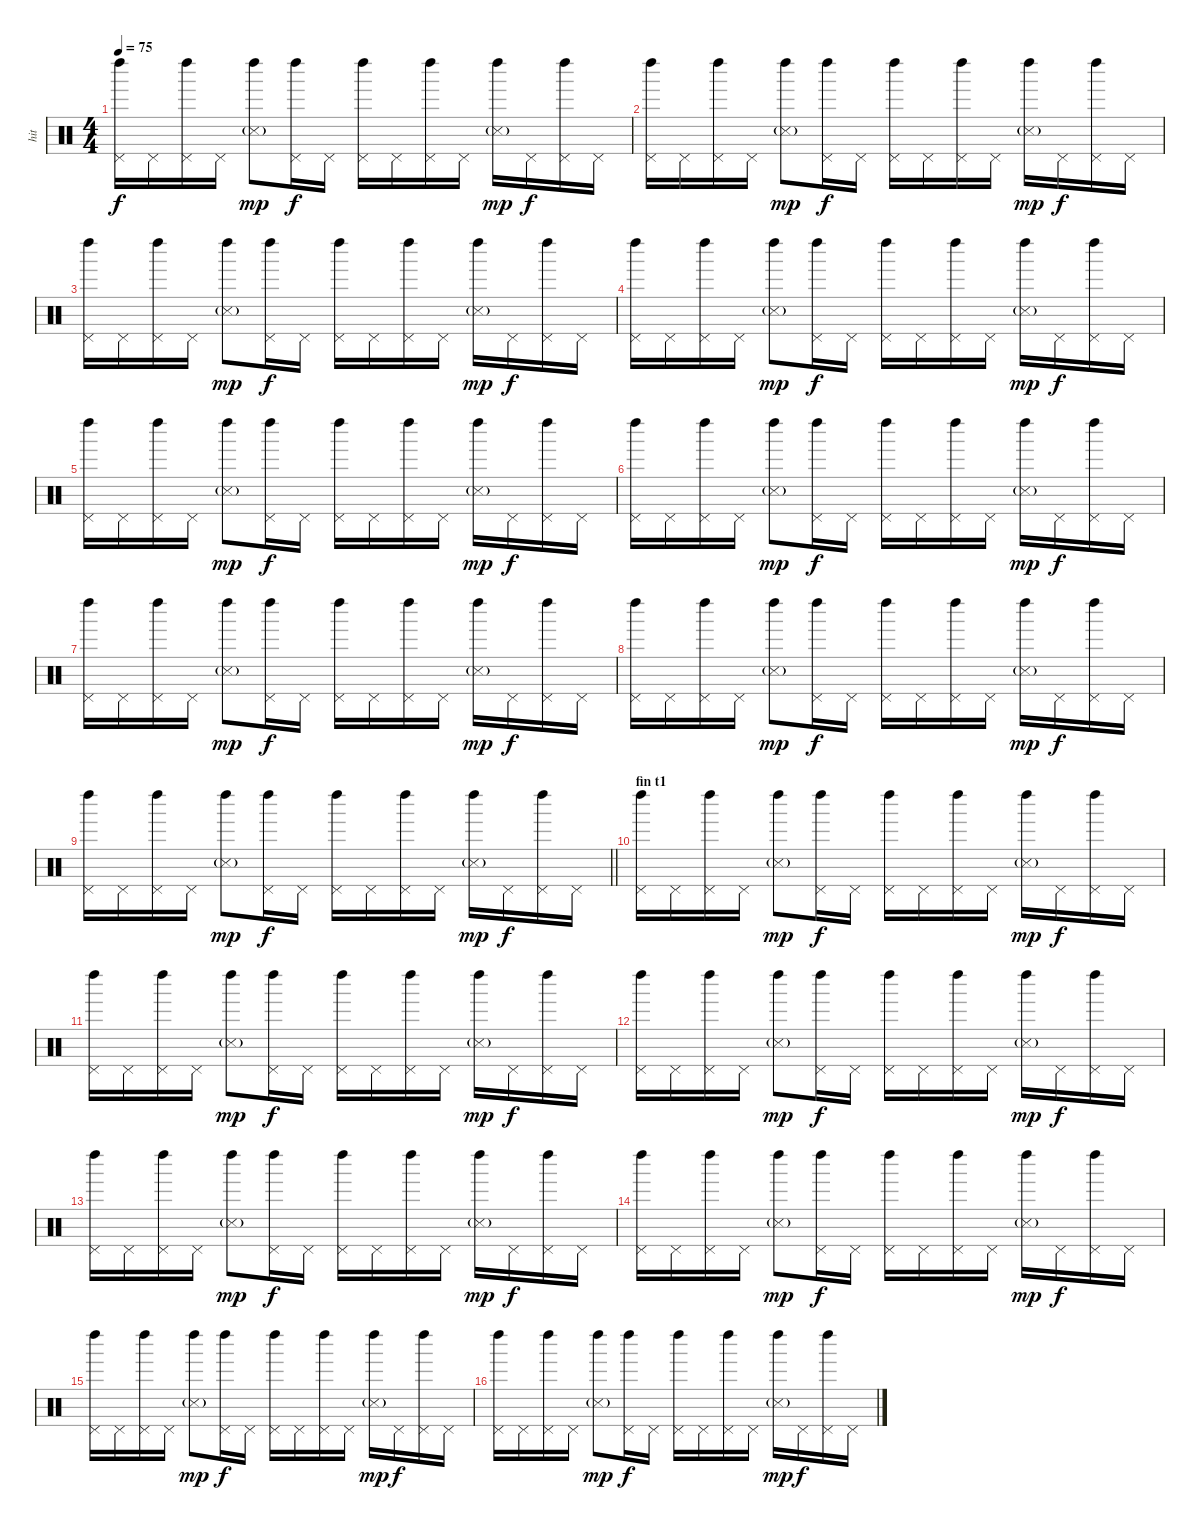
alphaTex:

\track ("hit" "hit") {instrument percussion}
\staff {score}
\articulation defaults
\ts (4 4)
\tempo 75
\clef neutral
\ks c
("Pedal Hi-Hat (hit)" "Left Maraca (hit)").16{dy f} "Pedal Hi-Hat (hit)".16 ("Pedal Hi-Hat (hit)" "Left Maraca (hit)").16 "Pedal Hi-Hat (hit)".16 ("Metronome (hit)"{g} "Left Maraca (hit)").8{dy mp} ("Pedal Hi-Hat (hit)" "Left Maraca (hit)").16{dy f} "Pedal Hi-Hat (hit)".16 ("Pedal Hi-Hat (hit)" "Left Maraca (hit)").16 "Pedal Hi-Hat (hit)".16 ("Pedal Hi-Hat (hit)" "Left Maraca (hit)").16 "Pedal Hi-Hat (hit)".16 ("Metronome (hit)"{g} "Left Maraca (hit)").16{dy mp} "Pedal Hi-Hat (hit)".16{dy f} ("Pedal Hi-Hat (hit)" "Left Maraca (hit)").16 "Pedal Hi-Hat (hit)".16 |
("Pedal Hi-Hat (hit)" "Left Maraca (hit)").16 "Pedal Hi-Hat (hit)".16 ("Pedal Hi-Hat (hit)" "Left Maraca (hit)").16 "Pedal Hi-Hat (hit)".16 ("Metronome (hit)"{g} "Left Maraca (hit)").8{dy mp} ("Pedal Hi-Hat (hit)" "Left Maraca (hit)").16{dy f} "Pedal Hi-Hat (hit)".16 ("Pedal Hi-Hat (hit)" "Left Maraca (hit)").16 "Pedal Hi-Hat (hit)".16 ("Pedal Hi-Hat (hit)" "Left Maraca (hit)").16 "Pedal Hi-Hat (hit)".16 ("Metronome (hit)"{g} "Left Maraca (hit)").16{dy mp} "Pedal Hi-Hat (hit)".16{dy f} ("Pedal Hi-Hat (hit)" "Left Maraca (hit)").16 "Pedal Hi-Hat (hit)".16 |
("Pedal Hi-Hat (hit)" "Left Maraca (hit)").16 "Pedal Hi-Hat (hit)".16 ("Pedal Hi-Hat (hit)" "Left Maraca (hit)").16 "Pedal Hi-Hat (hit)".16 ("Metronome (hit)"{g} "Left Maraca (hit)").8{dy mp} ("Pedal Hi-Hat (hit)" "Left Maraca (hit)").16{dy f} "Pedal Hi-Hat (hit)".16 ("Pedal Hi-Hat (hit)" "Left Maraca (hit)").16 "Pedal Hi-Hat (hit)".16 ("Pedal Hi-Hat (hit)" "Left Maraca (hit)").16 "Pedal Hi-Hat (hit)".16 ("Metronome (hit)"{g} "Left Maraca (hit)").16{dy mp} "Pedal Hi-Hat (hit)".16{dy f} ("Pedal Hi-Hat (hit)" "Left Maraca (hit)").16 "Pedal Hi-Hat (hit)".16 |
("Pedal Hi-Hat (hit)" "Left Maraca (hit)").16 "Pedal Hi-Hat (hit)".16 ("Pedal Hi-Hat (hit)" "Left Maraca (hit)").16 "Pedal Hi-Hat (hit)".16 ("Metronome (hit)"{g} "Left Maraca (hit)").8{dy mp} ("Pedal Hi-Hat (hit)" "Left Maraca (hit)").16{dy f} "Pedal Hi-Hat (hit)".16 ("Pedal Hi-Hat (hit)" "Left Maraca (hit)").16 "Pedal Hi-Hat (hit)".16 ("Pedal Hi-Hat (hit)" "Left Maraca (hit)").16 "Pedal Hi-Hat (hit)".16 ("Metronome (hit)"{g} "Left Maraca (hit)").16{dy mp} "Pedal Hi-Hat (hit)".16{dy f} ("Pedal Hi-Hat (hit)" "Left Maraca (hit)").16 "Pedal Hi-Hat (hit)".16 |
("Pedal Hi-Hat (hit)" "Left Maraca (hit)").16 "Pedal Hi-Hat (hit)".16 ("Pedal Hi-Hat (hit)" "Left Maraca (hit)").16 "Pedal Hi-Hat (hit)".16 ("Metronome (hit)"{g} "Left Maraca (hit)").8{dy mp} ("Pedal Hi-Hat (hit)" "Left Maraca (hit)").16{dy f} "Pedal Hi-Hat (hit)".16 ("Pedal Hi-Hat (hit)" "Left Maraca (hit)").16 "Pedal Hi-Hat (hit)".16 ("Pedal Hi-Hat (hit)" "Left Maraca (hit)").16 "Pedal Hi-Hat (hit)".16 ("Metronome (hit)"{g} "Left Maraca (hit)").16{dy mp} "Pedal Hi-Hat (hit)".16{dy f} ("Pedal Hi-Hat (hit)" "Left Maraca (hit)").16 "Pedal Hi-Hat (hit)".16 |
("Pedal Hi-Hat (hit)" "Left Maraca (hit)").16 "Pedal Hi-Hat (hit)".16 ("Pedal Hi-Hat (hit)" "Left Maraca (hit)").16 "Pedal Hi-Hat (hit)".16 ("Metronome (hit)"{g} "Left Maraca (hit)").8{dy mp} ("Pedal Hi-Hat (hit)" "Left Maraca (hit)").16{dy f} "Pedal Hi-Hat (hit)".16 ("Pedal Hi-Hat (hit)" "Left Maraca (hit)").16 "Pedal Hi-Hat (hit)".16 ("Pedal Hi-Hat (hit)" "Left Maraca (hit)").16 "Pedal Hi-Hat (hit)".16 ("Metronome (hit)"{g} "Left Maraca (hit)").16{dy mp} "Pedal Hi-Hat (hit)".16{dy f} ("Pedal Hi-Hat (hit)" "Left Maraca (hit)").16 "Pedal Hi-Hat (hit)".16 |
("Pedal Hi-Hat (hit)" "Left Maraca (hit)").16 "Pedal Hi-Hat (hit)".16 ("Pedal Hi-Hat (hit)" "Left Maraca (hit)").16 "Pedal Hi-Hat (hit)".16 ("Metronome (hit)"{g} "Left Maraca (hit)").8{dy mp} ("Pedal Hi-Hat (hit)" "Left Maraca (hit)").16{dy f} "Pedal Hi-Hat (hit)".16 ("Pedal Hi-Hat (hit)" "Left Maraca (hit)").16 "Pedal Hi-Hat (hit)".16 ("Pedal Hi-Hat (hit)" "Left Maraca (hit)").16 "Pedal Hi-Hat (hit)".16 ("Metronome (hit)"{g} "Left Maraca (hit)").16{dy mp} "Pedal Hi-Hat (hit)".16{dy f} ("Pedal Hi-Hat (hit)" "Left Maraca (hit)").16 "Pedal Hi-Hat (hit)".16 |
("Pedal Hi-Hat (hit)" "Left Maraca (hit)").16 "Pedal Hi-Hat (hit)".16 ("Pedal Hi-Hat (hit)" "Left Maraca (hit)").16 "Pedal Hi-Hat (hit)".16 ("Metronome (hit)"{g} "Left Maraca (hit)").8{dy mp} ("Pedal Hi-Hat (hit)" "Left Maraca (hit)").16{dy f} "Pedal Hi-Hat (hit)".16 ("Pedal Hi-Hat (hit)" "Left Maraca (hit)").16 "Pedal Hi-Hat (hit)".16 ("Pedal Hi-Hat (hit)" "Left Maraca (hit)").16 "Pedal Hi-Hat (hit)".16 ("Metronome (hit)"{g} "Left Maraca (hit)").16{dy mp} "Pedal Hi-Hat (hit)".16{dy f} ("Pedal Hi-Hat (hit)" "Left Maraca (hit)").16 "Pedal Hi-Hat (hit)".16 |
\barLineRight lightlight
("Pedal Hi-Hat (hit)" "Left Maraca (hit)").16 "Pedal Hi-Hat (hit)".16 ("Pedal Hi-Hat (hit)" "Left Maraca (hit)").16 "Pedal Hi-Hat (hit)".16 ("Metronome (hit)"{g} "Left Maraca (hit)").8{dy mp} ("Pedal Hi-Hat (hit)" "Left Maraca (hit)").16{dy f} "Pedal Hi-Hat (hit)".16 ("Pedal Hi-Hat (hit)" "Left Maraca (hit)").16 "Pedal Hi-Hat (hit)".16 ("Pedal Hi-Hat (hit)" "Left Maraca (hit)").16 "Pedal Hi-Hat (hit)".16 ("Metronome (hit)"{g} "Left Maraca (hit)").16{dy mp} "Pedal Hi-Hat (hit)".16{dy f} ("Pedal Hi-Hat (hit)" "Left Maraca (hit)").16 "Pedal Hi-Hat (hit)".16 |
\section ("" "fin t1")
("Pedal Hi-Hat (hit)" "Left Maraca (hit)").16 "Pedal Hi-Hat (hit)".16 ("Pedal Hi-Hat (hit)" "Left Maraca (hit)").16 "Pedal Hi-Hat (hit)".16 ("Metronome (hit)"{g} "Left Maraca (hit)").8{dy mp} ("Pedal Hi-Hat (hit)" "Left Maraca (hit)").16{dy f} "Pedal Hi-Hat (hit)".16 ("Pedal Hi-Hat (hit)" "Left Maraca (hit)").16 "Pedal Hi-Hat (hit)".16 ("Pedal Hi-Hat (hit)" "Left Maraca (hit)").16 "Pedal Hi-Hat (hit)".16 ("Metronome (hit)"{g} "Left Maraca (hit)").16{dy mp} "Pedal Hi-Hat (hit)".16{dy f} ("Pedal Hi-Hat (hit)" "Left Maraca (hit)").16 "Pedal Hi-Hat (hit)".16 |
("Pedal Hi-Hat (hit)" "Left Maraca (hit)").16 "Pedal Hi-Hat (hit)".16 ("Pedal Hi-Hat (hit)" "Left Maraca (hit)").16 "Pedal Hi-Hat (hit)".16 ("Metronome (hit)"{g} "Left Maraca (hit)").8{dy mp} ("Pedal Hi-Hat (hit)" "Left Maraca (hit)").16{dy f} "Pedal Hi-Hat (hit)".16 ("Pedal Hi-Hat (hit)" "Left Maraca (hit)").16 "Pedal Hi-Hat (hit)".16 ("Pedal Hi-Hat (hit)" "Left Maraca (hit)").16 "Pedal Hi-Hat (hit)".16 ("Metronome (hit)"{g} "Left Maraca (hit)").16{dy mp} "Pedal Hi-Hat (hit)".16{dy f} ("Pedal Hi-Hat (hit)" "Left Maraca (hit)").16 "Pedal Hi-Hat (hit)".16 |
("Pedal Hi-Hat (hit)" "Left Maraca (hit)").16 "Pedal Hi-Hat (hit)".16 ("Pedal Hi-Hat (hit)" "Left Maraca (hit)").16 "Pedal Hi-Hat (hit)".16 ("Metronome (hit)"{g} "Left Maraca (hit)").8{dy mp} ("Pedal Hi-Hat (hit)" "Left Maraca (hit)").16{dy f} "Pedal Hi-Hat (hit)".16 ("Pedal Hi-Hat (hit)" "Left Maraca (hit)").16 "Pedal Hi-Hat (hit)".16 ("Pedal Hi-Hat (hit)" "Left Maraca (hit)").16 "Pedal Hi-Hat (hit)".16 ("Metronome (hit)"{g} "Left Maraca (hit)").16{dy mp} "Pedal Hi-Hat (hit)".16{dy f} ("Pedal Hi-Hat (hit)" "Left Maraca (hit)").16 "Pedal Hi-Hat (hit)".16 |
("Pedal Hi-Hat (hit)" "Left Maraca (hit)").16 "Pedal Hi-Hat (hit)".16 ("Pedal Hi-Hat (hit)" "Left Maraca (hit)").16 "Pedal Hi-Hat (hit)".16 ("Metronome (hit)"{g} "Left Maraca (hit)").8{dy mp} ("Pedal Hi-Hat (hit)" "Left Maraca (hit)").16{dy f} "Pedal Hi-Hat (hit)".16 ("Pedal Hi-Hat (hit)" "Left Maraca (hit)").16 "Pedal Hi-Hat (hit)".16 ("Pedal Hi-Hat (hit)" "Left Maraca (hit)").16 "Pedal Hi-Hat (hit)".16 ("Metronome (hit)"{g} "Left Maraca (hit)").16{dy mp} "Pedal Hi-Hat (hit)".16{dy f} ("Pedal Hi-Hat (hit)" "Left Maraca (hit)").16 "Pedal Hi-Hat (hit)".16 |
("Pedal Hi-Hat (hit)" "Left Maraca (hit)").16 "Pedal Hi-Hat (hit)".16 ("Pedal Hi-Hat (hit)" "Left Maraca (hit)").16 "Pedal Hi-Hat (hit)".16 ("Metronome (hit)"{g} "Left Maraca (hit)").8{dy mp} ("Pedal Hi-Hat (hit)" "Left Maraca (hit)").16{dy f} "Pedal Hi-Hat (hit)".16 ("Pedal Hi-Hat (hit)" "Left Maraca (hit)").16 "Pedal Hi-Hat (hit)".16 ("Pedal Hi-Hat (hit)" "Left Maraca (hit)").16 "Pedal Hi-Hat (hit)".16 ("Metronome (hit)"{g} "Left Maraca (hit)").16{dy mp} "Pedal Hi-Hat (hit)".16{dy f} ("Pedal Hi-Hat (hit)" "Left Maraca (hit)").16 "Pedal Hi-Hat (hit)".16 |
("Pedal Hi-Hat (hit)" "Left Maraca (hit)").16 "Pedal Hi-Hat (hit)".16 ("Pedal Hi-Hat (hit)" "Left Maraca (hit)").16 "Pedal Hi-Hat (hit)".16 ("Metronome (hit)"{g} "Left Maraca (hit)").8{dy mp} ("Pedal Hi-Hat (hit)" "Left Maraca (hit)").16{dy f} "Pedal Hi-Hat (hit)".16 ("Pedal Hi-Hat (hit)" "Left Maraca (hit)").16 "Pedal Hi-Hat (hit)".16 ("Pedal Hi-Hat (hit)" "Left Maraca (hit)").16 "Pedal Hi-Hat (hit)".16 ("Metronome (hit)"{g} "Left Maraca (hit)").16{dy mp} "Pedal Hi-Hat (hit)".16{dy f} ("Pedal Hi-Hat (hit)" "Left Maraca (hit)").16 "Pedal Hi-Hat (hit)".16 |
("Pedal Hi-Hat (hit)" "Left Maraca (hit)").16 "Pedal Hi-Hat (hit)".16 ("Pedal Hi-Hat (hit)" "Left Maraca (hit)").16 "Pedal Hi-Hat (hit)".16 ("Metronome (hit)"{g} "Left Maraca (hit)").8{dy mp} ("Pedal Hi-Hat (hit)" "Left Maraca (hit)").16{dy f} "Pedal Hi-Hat (hit)".16 ("Pedal Hi-Hat (hit)" "Left Maraca (hit)").16 "Pedal Hi-Hat (hit)".16 ("Pedal Hi-Hat (hit)" "Left Maraca (hit)").16 "Pedal Hi-Hat (hit)".16 ("Metronome (hit)"{g} "Left Maraca (hit)").16{dy mp} "Pedal Hi-Hat (hit)".16{dy f} ("Pedal Hi-Hat (hit)" "Left Maraca (hit)").16 "Pedal Hi-Hat (hit)".16
